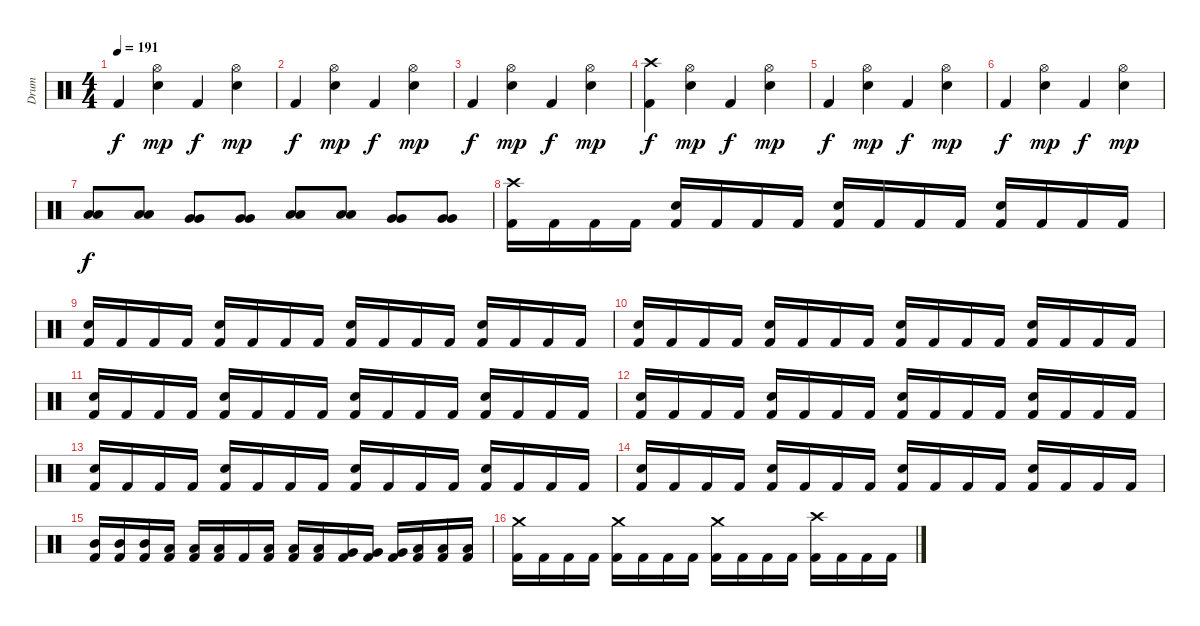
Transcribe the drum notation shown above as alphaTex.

\track ("Drum" "Drum") {instrument percussion}
\staff {score}
\articulation defaults
\ts (4 4)
\tempo 191
\clef neutral
\ks c "Kick (hit) 2".4{dy f}
("Snare (hit) 2" "Hi-Hat (open)").4{dy mp} "Kick (hit) 2".4{dy f} ("Snare (hit) 2" "Hi-Hat (open)").4{dy mp} |
"Kick (hit) 2".4{dy f} ("Snare (hit) 2" "Hi-Hat (open)").4{dy mp} "Kick (hit) 2".4{dy f} ("Snare (hit) 2" "Hi-Hat (open)").4{dy mp} |
"Kick (hit) 2".4{dy f} ("Snare (hit) 2" "Hi-Hat (open)").4{dy mp} "Kick (hit) 2".4{dy f} ("Snare (hit) 2" "Hi-Hat (open)").4{dy mp} |
("Kick (hit) 2" "Crash high (hit)").4{dy f} ("Snare (hit) 2" "Hi-Hat (open)").4{dy mp} "Kick (hit) 2".4{dy f} ("Snare (hit) 2" "Hi-Hat (open)").4{dy mp} |
"Kick (hit) 2".4{dy f} ("Snare (hit) 2" "Hi-Hat (open)").4{dy mp} "Kick (hit) 2".4{dy f} ("Snare (hit) 2" "Hi-Hat (open)").4{dy mp} |
"Kick (hit) 2".4{dy f} ("Snare (hit) 2" "Hi-Hat (open)").4{dy mp} "Kick (hit) 2".4{dy f} ("Snare (hit) 2" "Hi-Hat (open)").4{dy mp} |
("Low Floor Tom (hit)" "Low Floor Tom (hit)").8{dy f} ("Low Floor Tom (hit)" "Low Floor Tom (hit)").8 ("Very Low Tom (hit)" "Very Low Tom (hit)").8 ("Very Low Tom (hit)" "Very Low Tom (hit)").8 ("Low Tom (hit)" "Low Tom (hit)").8 ("Low Tom (hit)" "Low Tom (hit)").8 ("Very Low Tom (hit)" "Very Low Tom (hit)").8 ("Very Low Tom (hit)" "Very Low Tom (hit)").8 |
("Kick (hit) 2" "Crash high (hit)").16 "Kick (hit) 2".16 "Kick (hit) 2".16 "Kick (hit) 2".16 ("Kick (hit) 2" "Snare (hit) 2").16 "Kick (hit) 2".16 "Kick (hit) 2".16 "Kick (hit) 2".16 ("Kick (hit) 2" "Snare (hit) 2").16 "Kick (hit) 2".16 "Kick (hit) 2".16 "Kick (hit) 2".16 ("Kick (hit) 2" "Snare (hit) 2").16 "Kick (hit) 2".16 "Kick (hit) 2".16 "Kick (hit) 2".16 |
("Kick (hit) 2" "Snare (hit) 2").16 "Kick (hit) 2".16 "Kick (hit) 2".16 "Kick (hit) 2".16 ("Kick (hit) 2" "Snare (hit) 2").16 "Kick (hit) 2".16 "Kick (hit) 2".16 "Kick (hit) 2".16 ("Kick (hit) 2" "Snare (hit) 2").16 "Kick (hit) 2".16 "Kick (hit) 2".16 "Kick (hit) 2".16 ("Kick (hit) 2" "Snare (hit) 2").16 "Kick (hit) 2".16 "Kick (hit) 2".16 "Kick (hit) 2".16 |
("Kick (hit) 2" "Snare (hit) 2").16 "Kick (hit) 2".16 "Kick (hit) 2".16 "Kick (hit) 2".16 ("Kick (hit) 2" "Snare (hit) 2").16 "Kick (hit) 2".16 "Kick (hit) 2".16 "Kick (hit) 2".16 ("Kick (hit) 2" "Snare (hit) 2").16 "Kick (hit) 2".16 "Kick (hit) 2".16 "Kick (hit) 2".16 ("Kick (hit) 2" "Snare (hit) 2").16 "Kick (hit) 2".16 "Kick (hit) 2".16 "Kick (hit) 2".16 |
("Kick (hit) 2" "Snare (hit) 2").16 "Kick (hit) 2".16 "Kick (hit) 2".16 "Kick (hit) 2".16 ("Kick (hit) 2" "Snare (hit) 2").16 "Kick (hit) 2".16 "Kick (hit) 2".16 "Kick (hit) 2".16 ("Kick (hit) 2" "Snare (hit) 2").16 "Kick (hit) 2".16 "Kick (hit) 2".16 "Kick (hit) 2".16 ("Kick (hit) 2" "Snare (hit) 2").16 "Kick (hit) 2".16 "Kick (hit) 2".16 "Kick (hit) 2".16 |
("Kick (hit) 2" "Snare (hit) 2").16 "Kick (hit) 2".16 "Kick (hit) 2".16 "Kick (hit) 2".16 ("Kick (hit) 2" "Snare (hit) 2").16 "Kick (hit) 2".16 "Kick (hit) 2".16 "Kick (hit) 2".16 ("Kick (hit) 2" "Snare (hit) 2").16 "Kick (hit) 2".16 "Kick (hit) 2".16 "Kick (hit) 2".16 ("Kick (hit) 2" "Snare (hit) 2").16 "Kick (hit) 2".16 "Kick (hit) 2".16 "Kick (hit) 2".16 |
("Kick (hit) 2" "Snare (hit) 2").16 "Kick (hit) 2".16 "Kick (hit) 2".16 "Kick (hit) 2".16 ("Kick (hit) 2" "Snare (hit) 2").16 "Kick (hit) 2".16 "Kick (hit) 2".16 "Kick (hit) 2".16 ("Kick (hit) 2" "Snare (hit) 2").16 "Kick (hit) 2".16 "Kick (hit) 2".16 "Kick (hit) 2".16 ("Kick (hit) 2" "Snare (hit) 2").16 "Kick (hit) 2".16 "Kick (hit) 2".16 "Kick (hit) 2".16 |
("Kick (hit) 2" "Snare (hit) 2").16 "Kick (hit) 2".16 "Kick (hit) 2".16 "Kick (hit) 2".16 ("Kick (hit) 2" "Snare (hit) 2").16 "Kick (hit) 2".16 "Kick (hit) 2".16 "Kick (hit) 2".16 ("Kick (hit) 2" "Snare (hit) 2").16 "Kick (hit) 2".16 "Kick (hit) 2".16 "Kick (hit) 2".16 ("Kick (hit) 2" "Snare (hit) 2").16 "Kick (hit) 2".16 "Kick (hit) 2".16 "Kick (hit) 2".16 |
("Kick (hit) 2" "Mid Tom (hit)").16 ("Kick (hit) 2" "Mid Tom (hit)").16 ("Kick (hit) 2" "Mid Tom (hit)").16 ("Kick (hit) 2" "Low Tom (hit)").16 ("Kick (hit) 2" "Low Tom (hit)").16 ("Kick (hit) 2" "Low Tom (hit)").16 "Kick (hit) 2".16 ("Kick (hit) 2" "Low Tom (hit)").16 ("Kick (hit) 2" "Low Tom (hit)").16 ("Kick (hit) 2" "Low Tom (hit)").16 ("Kick (hit) 2" "Very Low Tom (hit)").16 ("Kick (hit) 2" "Very Low Tom (hit)").16 ("Kick (hit) 2" "Very Low Tom (hit)").16 ("Kick (hit) 2" "Low Floor Tom (hit)").16 ("Kick (hit) 2" "Low Floor Tom (hit)").16 ("Kick (hit) 2" "Low Floor Tom (hit)").16 |
("Kick (hit) 2" "Crash medium (hit)").16 "Kick (hit) 2".16 "Kick (hit) 2".16 "Kick (hit) 2".16 ("Kick (hit) 2" "Crash medium (hit)").16 "Kick (hit) 2".16 "Kick (hit) 2".16 "Kick (hit) 2".16 ("Kick (hit) 2" "Crash medium (hit)").16 "Kick (hit) 2".16 "Kick (hit) 2".16 "Kick (hit) 2".16 ("Kick (hit) 2" "Crash high (hit)").16 "Kick (hit) 2".16 "Kick (hit) 2".16 "Kick (hit) 2".16
